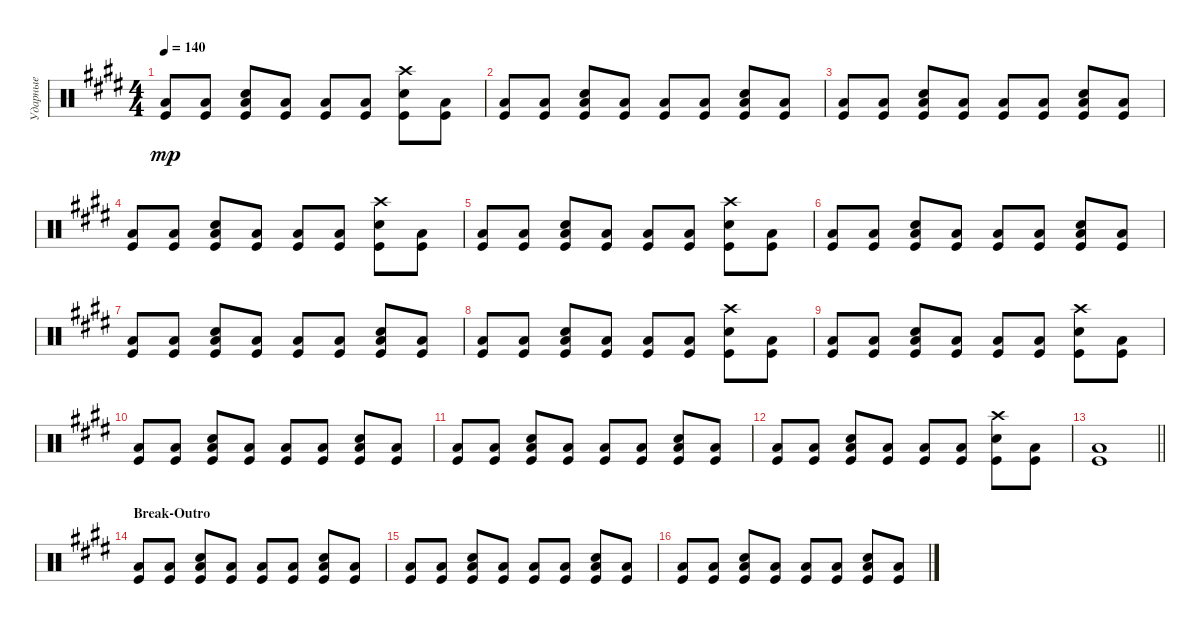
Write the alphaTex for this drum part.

\track ("Ударные" "Ударные") {instrument percussion}
\staff {score}
\articulation defaults
\ts (4 4)
\tempo 140
\clef neutral
\ks c#minor
("Kick (hit)" "Low Floor Tom (hit)").8{dy mp} ("Kick (hit)" "Low Floor Tom (hit)").8 ("Kick (hit)" "Low Floor Tom (hit)" "Snare (hit) 2").8 ("Kick (hit)" "Low Floor Tom (hit)").8 ("Kick (hit)" "Low Floor Tom (hit)").8 ("Kick (hit)" "Low Floor Tom (hit)").8 ("Kick (hit)" "Snare (hit) 2" "Crash high (hit)").8 ("Kick (hit)" "Low Floor Tom (hit)").8 |
("Kick (hit)" "Low Floor Tom (hit)").8 ("Kick (hit)" "Low Floor Tom (hit)").8 ("Kick (hit)" "Low Floor Tom (hit)" "Snare (hit) 2").8 ("Kick (hit)" "Low Floor Tom (hit)").8 ("Kick (hit)" "Low Floor Tom (hit)").8 ("Kick (hit)" "Low Floor Tom (hit)").8 ("Kick (hit)" "Low Floor Tom (hit)" "Snare (hit) 2").8 ("Kick (hit)" "Low Floor Tom (hit)").8 |
("Kick (hit)" "Low Floor Tom (hit)").8 ("Kick (hit)" "Low Floor Tom (hit)").8 ("Kick (hit)" "Low Floor Tom (hit)" "Snare (hit) 2").8 ("Kick (hit)" "Low Floor Tom (hit)").8 ("Kick (hit)" "Low Floor Tom (hit)").8 ("Kick (hit)" "Low Floor Tom (hit)").8 ("Kick (hit)" "Low Floor Tom (hit)" "Snare (hit) 2").8 ("Kick (hit)" "Low Floor Tom (hit)").8 |
("Kick (hit)" "Low Floor Tom (hit)").8 ("Kick (hit)" "Low Floor Tom (hit)").8 ("Kick (hit)" "Low Floor Tom (hit)" "Snare (hit) 2").8 ("Kick (hit)" "Low Floor Tom (hit)").8 ("Kick (hit)" "Low Floor Tom (hit)").8 ("Kick (hit)" "Low Floor Tom (hit)").8 ("Kick (hit)" "Snare (hit) 2" "Crash high (hit)").8 ("Kick (hit)" "Low Floor Tom (hit)").8 |
("Kick (hit)" "Low Floor Tom (hit)").8 ("Kick (hit)" "Low Floor Tom (hit)").8 ("Kick (hit)" "Low Floor Tom (hit)" "Snare (hit) 2").8 ("Kick (hit)" "Low Floor Tom (hit)").8 ("Kick (hit)" "Low Floor Tom (hit)").8 ("Kick (hit)" "Low Floor Tom (hit)").8 ("Kick (hit)" "Snare (hit) 2" "Crash high (hit)").8 ("Kick (hit)" "Low Floor Tom (hit)").8 |
("Kick (hit)" "Low Floor Tom (hit)").8 ("Kick (hit)" "Low Floor Tom (hit)").8 ("Kick (hit)" "Low Floor Tom (hit)" "Snare (hit) 2").8 ("Kick (hit)" "Low Floor Tom (hit)").8 ("Kick (hit)" "Low Floor Tom (hit)").8 ("Kick (hit)" "Low Floor Tom (hit)").8 ("Kick (hit)" "Low Floor Tom (hit)" "Snare (hit) 2").8 ("Kick (hit)" "Low Floor Tom (hit)").8 |
("Kick (hit)" "Low Floor Tom (hit)").8 ("Kick (hit)" "Low Floor Tom (hit)").8 ("Kick (hit)" "Low Floor Tom (hit)" "Snare (hit) 2").8 ("Kick (hit)" "Low Floor Tom (hit)").8 ("Kick (hit)" "Low Floor Tom (hit)").8 ("Kick (hit)" "Low Floor Tom (hit)").8 ("Kick (hit)" "Low Floor Tom (hit)" "Snare (hit) 2").8 ("Kick (hit)" "Low Floor Tom (hit)").8 |
("Kick (hit)" "Low Floor Tom (hit)").8 ("Kick (hit)" "Low Floor Tom (hit)").8 ("Kick (hit)" "Low Floor Tom (hit)" "Snare (hit) 2").8 ("Kick (hit)" "Low Floor Tom (hit)").8 ("Kick (hit)" "Low Floor Tom (hit)").8 ("Kick (hit)" "Low Floor Tom (hit)").8 ("Kick (hit)" "Snare (hit) 2" "Crash high (hit)").8 ("Kick (hit)" "Low Floor Tom (hit)").8 |
("Kick (hit)" "Low Floor Tom (hit)").8 ("Kick (hit)" "Low Floor Tom (hit)").8 ("Kick (hit)" "Low Floor Tom (hit)" "Snare (hit) 2").8 ("Kick (hit)" "Low Floor Tom (hit)").8 ("Kick (hit)" "Low Floor Tom (hit)").8 ("Kick (hit)" "Low Floor Tom (hit)").8 ("Kick (hit)" "Snare (hit) 2" "Crash high (hit)").8 ("Kick (hit)" "Low Floor Tom (hit)").8 |
("Kick (hit)" "Low Floor Tom (hit)").8 ("Kick (hit)" "Low Floor Tom (hit)").8 ("Kick (hit)" "Low Floor Tom (hit)" "Snare (hit) 2").8 ("Kick (hit)" "Low Floor Tom (hit)").8 ("Kick (hit)" "Low Floor Tom (hit)").8 ("Kick (hit)" "Low Floor Tom (hit)").8 ("Kick (hit)" "Low Floor Tom (hit)" "Snare (hit) 2").8 ("Kick (hit)" "Low Floor Tom (hit)").8 |
("Kick (hit)" "Low Floor Tom (hit)").8 ("Kick (hit)" "Low Floor Tom (hit)").8 ("Kick (hit)" "Low Floor Tom (hit)" "Snare (hit) 2").8 ("Kick (hit)" "Low Floor Tom (hit)").8 ("Kick (hit)" "Low Floor Tom (hit)").8 ("Kick (hit)" "Low Floor Tom (hit)").8 ("Kick (hit)" "Low Floor Tom (hit)" "Snare (hit) 2").8 ("Kick (hit)" "Low Floor Tom (hit)").8 |
("Kick (hit)" "Low Floor Tom (hit)").8 ("Kick (hit)" "Low Floor Tom (hit)").8 ("Kick (hit)" "Low Floor Tom (hit)" "Snare (hit) 2").8 ("Kick (hit)" "Low Floor Tom (hit)").8 ("Kick (hit)" "Low Floor Tom (hit)").8 ("Kick (hit)" "Low Floor Tom (hit)").8 ("Kick (hit)" "Snare (hit) 2" "Crash high (hit)").8 ("Kick (hit)" "Low Floor Tom (hit)").8 |
\barLineRight lightlight
("Kick (hit)" "Low Floor Tom (hit)").1 |
\section ("" "Break-Outro")
("Kick (hit)" "Low Floor Tom (hit)").8 ("Kick (hit)" "Low Floor Tom (hit)").8 ("Kick (hit)" "Low Floor Tom (hit)" "Snare (hit) 2").8 ("Kick (hit)" "Low Floor Tom (hit)").8 ("Kick (hit)" "Low Floor Tom (hit)").8 ("Kick (hit)" "Low Floor Tom (hit)").8 ("Kick (hit)" "Low Floor Tom (hit)" "Snare (hit) 2").8 ("Kick (hit)" "Low Floor Tom (hit)").8 |
("Kick (hit)" "Low Floor Tom (hit)").8 ("Kick (hit)" "Low Floor Tom (hit)").8 ("Kick (hit)" "Low Floor Tom (hit)" "Snare (hit) 2").8 ("Kick (hit)" "Low Floor Tom (hit)").8 ("Kick (hit)" "Low Floor Tom (hit)").8 ("Kick (hit)" "Low Floor Tom (hit)").8 ("Kick (hit)" "Low Floor Tom (hit)" "Snare (hit) 2").8 ("Kick (hit)" "Low Floor Tom (hit)").8 |
("Kick (hit)" "Low Floor Tom (hit)").8 ("Kick (hit)" "Low Floor Tom (hit)").8 ("Kick (hit)" "Low Floor Tom (hit)" "Snare (hit) 2").8 ("Kick (hit)" "Low Floor Tom (hit)").8 ("Kick (hit)" "Low Floor Tom (hit)").8 ("Kick (hit)" "Low Floor Tom (hit)").8 ("Kick (hit)" "Low Floor Tom (hit)" "Snare (hit) 2").8 ("Kick (hit)" "Low Floor Tom (hit)").8
